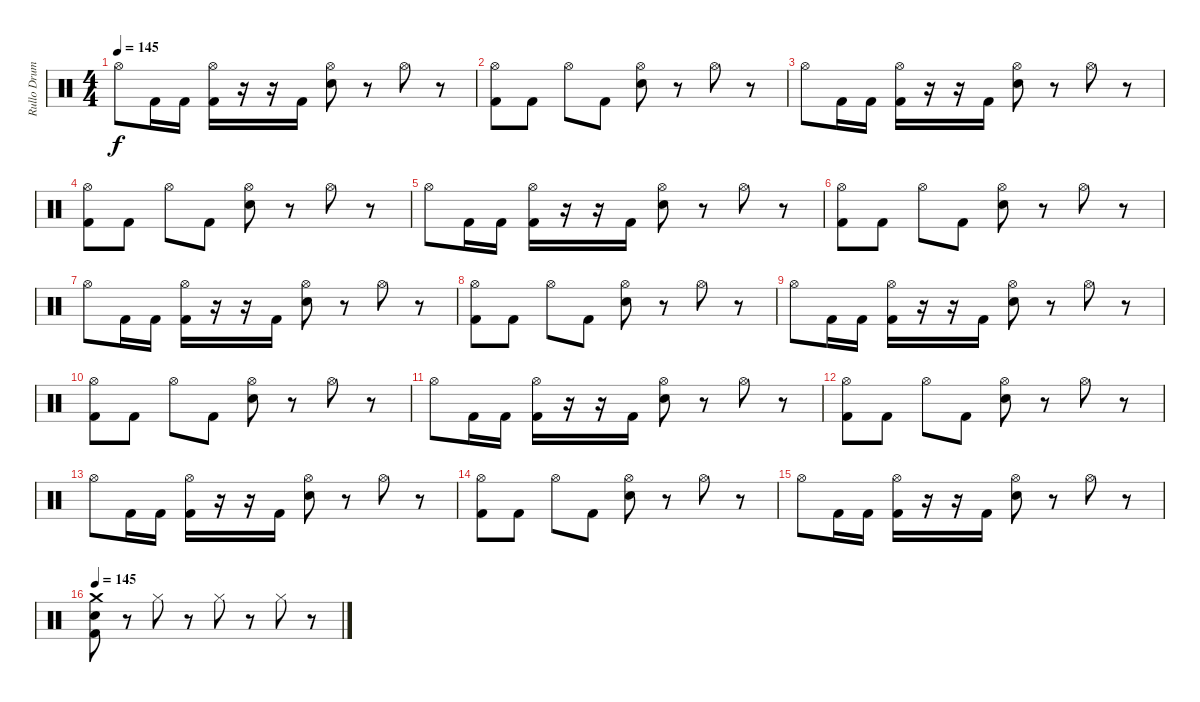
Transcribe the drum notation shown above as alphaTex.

\track ("Rullo Drums" "Rullo Drum") {instrument percussion}
\staff {score}
\articulation defaults
\ts (4 4)
\tempo 145
\clef neutral
\ks c "Hi-Hat (open)".8{dy f} "Kick (hit) 2".16 "Kick (hit) 2".16
("Kick (hit) 2" "Hi-Hat (open)").16 r.16 r.16 "Kick (hit) 2".16 ("Snare (hit) 2" "Hi-Hat (open)").8 r.8 "Hi-Hat (open)".8 r.8 |
("Kick (hit) 2" "Hi-Hat (open)").8 "Kick (hit) 2".8 "Hi-Hat (open)".8 "Kick (hit) 2".8 ("Snare (hit) 2" "Hi-Hat (open)").8 r.8 "Hi-Hat (open)".8 r.8 |
"Hi-Hat (open)".8 "Kick (hit) 2".16 "Kick (hit) 2".16 ("Kick (hit) 2" "Hi-Hat (open)").16 r.16 r.16 "Kick (hit) 2".16 ("Snare (hit) 2" "Hi-Hat (open)").8 r.8 "Hi-Hat (open)".8 r.8 |
("Kick (hit) 2" "Hi-Hat (open)").8 "Kick (hit) 2".8 "Hi-Hat (open)".8 "Kick (hit) 2".8 ("Snare (hit) 2" "Hi-Hat (open)").8 r.8 "Hi-Hat (open)".8 r.8 |
"Hi-Hat (open)".8 "Kick (hit) 2".16 "Kick (hit) 2".16 ("Kick (hit) 2" "Hi-Hat (open)").16 r.16 r.16 "Kick (hit) 2".16 ("Snare (hit) 2" "Hi-Hat (open)").8 r.8 "Hi-Hat (open)".8 r.8 |
("Kick (hit) 2" "Hi-Hat (open)").8 "Kick (hit) 2".8 "Hi-Hat (open)".8 "Kick (hit) 2".8 ("Snare (hit) 2" "Hi-Hat (open)").8 r.8 "Hi-Hat (open)".8 r.8 |
"Hi-Hat (open)".8 "Kick (hit) 2".16 "Kick (hit) 2".16 ("Kick (hit) 2" "Hi-Hat (open)").16 r.16 r.16 "Kick (hit) 2".16 ("Snare (hit) 2" "Hi-Hat (open)").8 r.8 "Hi-Hat (open)".8 r.8 |
("Kick (hit) 2" "Hi-Hat (open)").8 "Kick (hit) 2".8 "Hi-Hat (open)".8 "Kick (hit) 2".8 ("Snare (hit) 2" "Hi-Hat (open)").8 r.8 "Hi-Hat (open)".8 r.8 |
"Hi-Hat (open)".8 "Kick (hit) 2".16 "Kick (hit) 2".16 ("Kick (hit) 2" "Hi-Hat (open)").16 r.16 r.16 "Kick (hit) 2".16 ("Snare (hit) 2" "Hi-Hat (open)").8 r.8 "Hi-Hat (open)".8 r.8 |
("Kick (hit) 2" "Hi-Hat (open)").8 "Kick (hit) 2".8 "Hi-Hat (open)".8 "Kick (hit) 2".8 ("Snare (hit) 2" "Hi-Hat (open)").8 r.8 "Hi-Hat (open)".8 r.8 |
"Hi-Hat (open)".8 "Kick (hit) 2".16 "Kick (hit) 2".16 ("Kick (hit) 2" "Hi-Hat (open)").16 r.16 r.16 "Kick (hit) 2".16 ("Snare (hit) 2" "Hi-Hat (open)").8 r.8 "Hi-Hat (open)".8 r.8 |
("Kick (hit) 2" "Hi-Hat (open)").8 "Kick (hit) 2".8 "Hi-Hat (open)".8 "Kick (hit) 2".8 ("Snare (hit) 2" "Hi-Hat (open)").8 r.8 "Hi-Hat (open)".8 r.8 |
"Hi-Hat (open)".8 "Kick (hit) 2".16 "Kick (hit) 2".16 ("Kick (hit) 2" "Hi-Hat (open)").16 r.16 r.16 "Kick (hit) 2".16 ("Snare (hit) 2" "Hi-Hat (open)").8 r.8 "Hi-Hat (open)".8 r.8 |
("Kick (hit) 2" "Hi-Hat (open)").8 "Kick (hit) 2".8 "Hi-Hat (open)".8 "Kick (hit) 2".8 ("Snare (hit) 2" "Hi-Hat (open)").8 r.8 "Hi-Hat (open)".8 r.8 |
"Hi-Hat (open)".8 "Kick (hit) 2".16 "Kick (hit) 2".16 ("Kick (hit) 2" "Hi-Hat (open)").16 r.16 r.16 "Kick (hit) 2".16 ("Snare (hit) 2" "Hi-Hat (open)").8 r.8 "Hi-Hat (open)".8 r.8 |
\tempo 145
("Snare (hit) 2" "Kick (hit) 2" "Crash medium (hit)").8 r.8 "Hi-Hat (closed)".8 r.8 "Hi-Hat (closed)".8 r.8 "Hi-Hat (closed)".8 r.8
